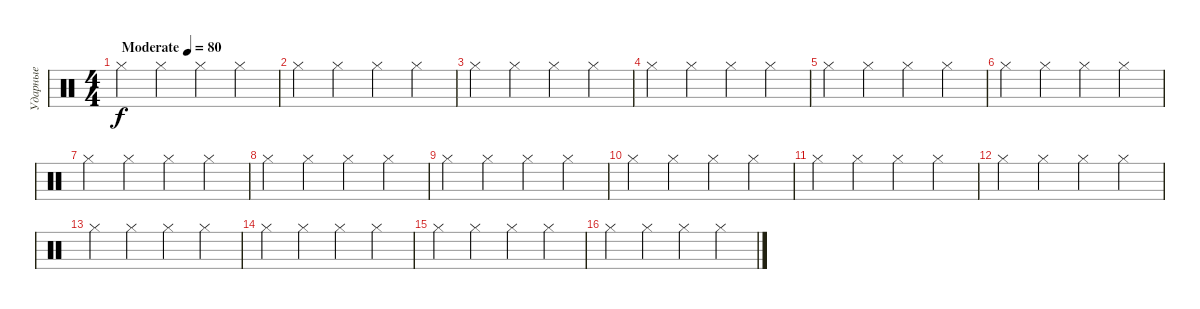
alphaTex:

\track ("Ударные" "Ударные") {instrument percussion}
\staff {score}
\articulation defaults
\ts (4 4)
\tempo (80 "Moderate")
\clef neutral
\ks c "Hi-Hat (closed)".4{dy f} "Hi-Hat (closed)".4 "Hi-Hat (closed)".4 "Hi-Hat (closed)".4
|
"Hi-Hat (closed)".4 "Hi-Hat (closed)".4 "Hi-Hat (closed)".4 "Hi-Hat (closed)".4 |
"Hi-Hat (closed)".4 "Hi-Hat (closed)".4 "Hi-Hat (closed)".4 "Hi-Hat (closed)".4 |
"Hi-Hat (closed)".4 "Hi-Hat (closed)".4 "Hi-Hat (closed)".4 "Hi-Hat (closed)".4 |
"Hi-Hat (closed)".4 "Hi-Hat (closed)".4 "Hi-Hat (closed)".4 "Hi-Hat (closed)".4 |
"Hi-Hat (closed)".4 "Hi-Hat (closed)".4 "Hi-Hat (closed)".4 "Hi-Hat (closed)".4 |
"Hi-Hat (closed)".4 "Hi-Hat (closed)".4 "Hi-Hat (closed)".4 "Hi-Hat (closed)".4 |
"Hi-Hat (closed)".4 "Hi-Hat (closed)".4 "Hi-Hat (closed)".4 "Hi-Hat (closed)".4 |
"Hi-Hat (closed)".4 "Hi-Hat (closed)".4 "Hi-Hat (closed)".4 "Hi-Hat (closed)".4 |
"Hi-Hat (closed)".4 "Hi-Hat (closed)".4 "Hi-Hat (closed)".4 "Hi-Hat (closed)".4 |
"Hi-Hat (closed)".4 "Hi-Hat (closed)".4 "Hi-Hat (closed)".4 "Hi-Hat (closed)".4 |
"Hi-Hat (closed)".4 "Hi-Hat (closed)".4 "Hi-Hat (closed)".4 "Hi-Hat (closed)".4 |
"Hi-Hat (closed)".4 "Hi-Hat (closed)".4 "Hi-Hat (closed)".4 "Hi-Hat (closed)".4 |
"Hi-Hat (closed)".4 "Hi-Hat (closed)".4 "Hi-Hat (closed)".4 "Hi-Hat (closed)".4 |
"Hi-Hat (closed)".4 "Hi-Hat (closed)".4 "Hi-Hat (closed)".4 "Hi-Hat (closed)".4 |
"Hi-Hat (closed)".4 "Hi-Hat (closed)".4 "Hi-Hat (closed)".4 "Hi-Hat (closed)".4
